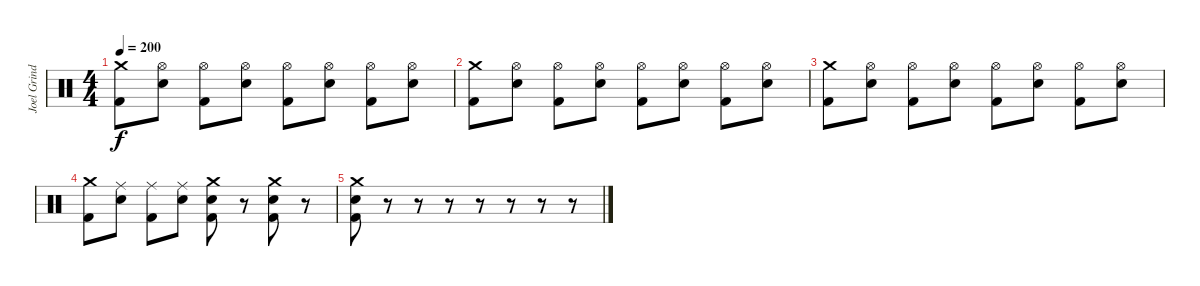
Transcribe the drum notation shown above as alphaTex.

\track ("Joel Grind (drums)" "Joel Grind") {instrument percussion}
\staff {score}
\articulation defaults
\ts (4 4)
\tempo 200
\clef neutral
\ks c
("Crash medium (hit)" "Kick (hit) 2").8{dy f} ("Hi-Hat (open)" "Snare (hit) 2").8 ("Hi-Hat (open)" "Kick (hit) 2").8 ("Hi-Hat (open)" "Snare (hit) 2").8 ("Hi-Hat (open)" "Kick (hit) 2").8 ("Hi-Hat (open)" "Snare (hit) 2").8 ("Hi-Hat (open)" "Kick (hit) 2").8 ("Hi-Hat (open)" "Snare (hit) 2").8 |
("Crash medium (hit)" "Kick (hit) 2").8 ("Hi-Hat (open)" "Snare (hit) 2").8 ("Hi-Hat (open)" "Kick (hit) 2").8 ("Hi-Hat (open)" "Snare (hit) 2").8 ("Hi-Hat (open)" "Kick (hit) 2").8 ("Hi-Hat (open)" "Snare (hit) 2").8 ("Hi-Hat (open)" "Kick (hit) 2").8 ("Hi-Hat (open)" "Snare (hit) 2").8 |
("Crash medium (hit)" "Kick (hit) 2").8 ("Hi-Hat (open)" "Snare (hit) 2").8 ("Hi-Hat (open)" "Kick (hit) 2").8 ("Hi-Hat (open)" "Snare (hit) 2").8 ("Hi-Hat (open)" "Kick (hit) 2").8 ("Hi-Hat (open)" "Snare (hit) 2").8 ("Hi-Hat (open)" "Kick (hit) 2").8 ("Hi-Hat (open)" "Snare (hit) 2").8 |
("Crash medium (hit)" "Kick (hit) 2").8 ("Ride (middle)" "Snare (hit) 2").8 ("Ride (middle)" "Kick (hit) 2").8 ("Ride (middle)" "Snare (hit) 2").8 ("Crash medium (hit)" "Snare (hit) 2" "Kick (hit) 2").8 r.8 ("Crash medium (hit)" "Snare (hit) 2" "Kick (hit) 2").8 r.8 |
("Crash medium (hit)" "Snare (hit) 2" "Kick (hit) 2").8 r.8 r.8 r.8 r.8 r.8 r.8 r.8
